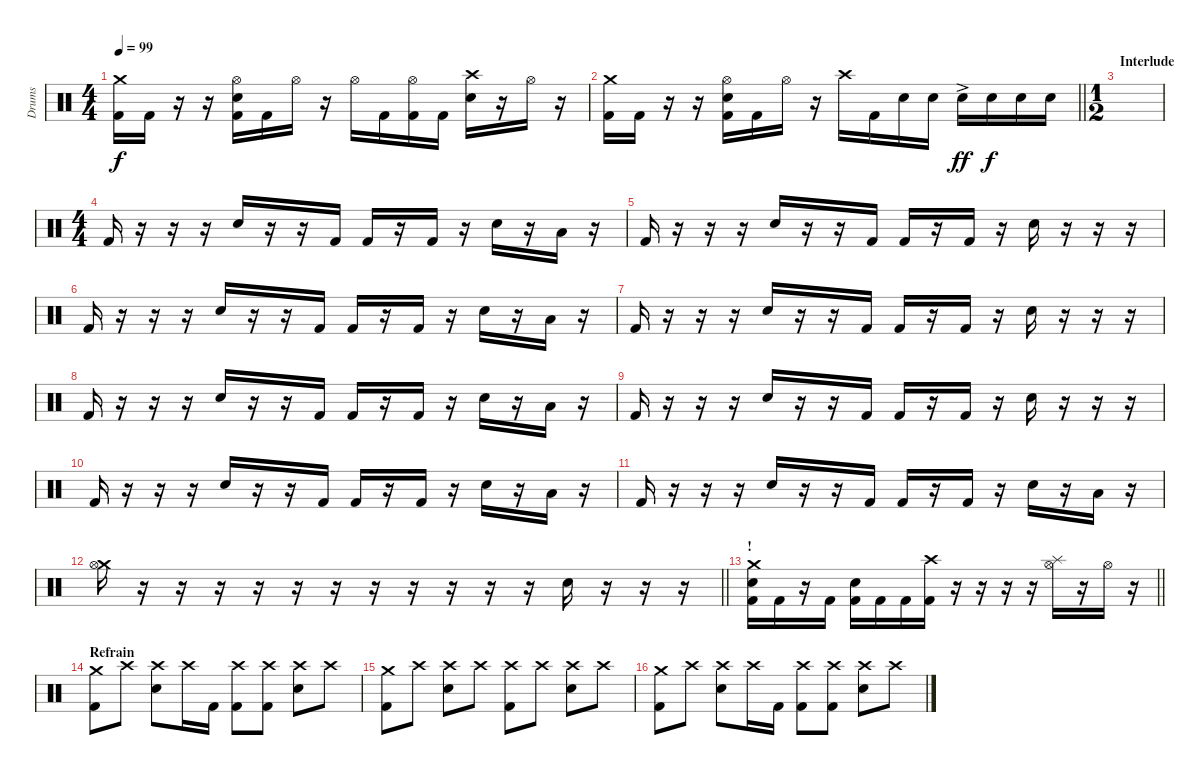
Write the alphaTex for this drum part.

\track ("Drums" "Drums") {instrument percussion}
\staff {score}
\articulation defaults
\ts (4 4)
\tempo 99
\clef neutral
\ks c
("Crash medium (hit)" "Kick (hit) 2").16{dy f} "Kick (hit) 2".16 r.16 r.16 ("Hi-Hat (open)" "Electric Snare (hit)" "Kick (hit) 2").16 "Kick (hit) 2".16 "Hi-Hat (open)".16 r.16 "Hi-Hat (open)".16 "Kick (hit) 2".16 ("Hi-Hat (open)" "Kick (hit) 2").16 "Kick (hit) 2".16 ("Crash high (hit)" "Electric Snare (hit)").16 r.16 "Hi-Hat (open)".16 r.16 |
\barLineRight lightlight
("Crash medium (hit)" "Kick (hit) 2").16 "Kick (hit) 2".16 r.16 r.16 ("Hi-Hat (open)" "Electric Snare (hit)" "Kick (hit) 2").16 "Kick (hit) 2".16 "Hi-Hat (open)".16 r.16 "Crash high (hit)".16 "Kick (hit) 2".16 "Electric Snare (hit)".16 "Electric Snare (hit)".16 "Electric Snare (hit)"{ac}.16{dy ff} "Electric Snare (hit)".16{dy f} "Electric Snare (hit)".16 "Electric Snare (hit)".16 |
\ts (1 2)
\section ("" "Interlude")
|
\ts (4 4)
"Kick (hit) 2".16 r.16 r.16 r.16 "Electric Snare (hit)".16 r.16 r.16 "Kick (hit) 2".16 "Kick (hit) 2".16 r.16 "Kick (hit) 2".16 r.16 "Electric Snare (hit)".16 r.16 "Low Floor Tom (hit)".16 r.16 |
"Kick (hit) 2".16 r.16 r.16 r.16 "Electric Snare (hit)".16 r.16 r.16 "Kick (hit) 2".16 "Kick (hit) 2".16 r.16 "Kick (hit) 2".16 r.16 "Electric Snare (hit)".16 r.16 r.16 r.16 |
"Kick (hit) 2".16 r.16 r.16 r.16 "Electric Snare (hit)".16 r.16 r.16 "Kick (hit) 2".16 "Kick (hit) 2".16 r.16 "Kick (hit) 2".16 r.16 "Electric Snare (hit)".16 r.16 "Low Floor Tom (hit)".16 r.16 |
"Kick (hit) 2".16 r.16 r.16 r.16 "Electric Snare (hit)".16 r.16 r.16 "Kick (hit) 2".16 "Kick (hit) 2".16 r.16 "Kick (hit) 2".16 r.16 "Electric Snare (hit)".16 r.16 r.16 r.16 |
"Kick (hit) 2".16 r.16 r.16 r.16 "Electric Snare (hit)".16 r.16 r.16 "Kick (hit) 2".16 "Kick (hit) 2".16 r.16 "Kick (hit) 2".16 r.16 "Electric Snare (hit)".16 r.16 "Low Floor Tom (hit)".16 r.16 |
"Kick (hit) 2".16 r.16 r.16 r.16 "Electric Snare (hit)".16 r.16 r.16 "Kick (hit) 2".16 "Kick (hit) 2".16 r.16 "Kick (hit) 2".16 r.16 "Electric Snare (hit)".16 r.16 r.16 r.16 |
"Kick (hit) 2".16 r.16 r.16 r.16 "Electric Snare (hit)".16 r.16 r.16 "Kick (hit) 2".16 "Kick (hit) 2".16 r.16 "Kick (hit) 2".16 r.16 "Electric Snare (hit)".16 r.16 "Low Floor Tom (hit)".16 r.16 |
"Kick (hit) 2".16 r.16 r.16 r.16 "Electric Snare (hit)".16 r.16 r.16 "Kick (hit) 2".16 "Kick (hit) 2".16 r.16 "Kick (hit) 2".16 r.16 "Electric Snare (hit)".16 r.16 "Low Floor Tom (hit)".16 r.16 |
\barLineRight lightlight
("Crash medium (hit)" "Hi-Hat (open)").16 r.16 r.16 r.16 r.16 r.16 r.16 r.16 r.16 r.16 r.16 r.16 "Electric Snare (hit)".16 r.16 r.16 r.16 |
\section ("" "!")
\barLineRight lightlight
("Crash medium (hit)" "Electric Snare (hit)" "Kick (hit) 2").16 "Kick (hit) 2".16 r.16 "Kick (hit) 2".16 ("Electric Snare (hit)" "Kick (hit) 2").16 "Kick (hit) 2".16 "Kick (hit) 2".16 ("Crash high (hit)" "Kick (hit) 2").16 r.16 r.16 r.16 r.16 ("Splash (hit)" "Hi-Hat (open)").16 r.16 "Hi-Hat (open)".16 r.16 |
\section ("" "Refrain")
("Crash medium (hit)" "Kick (hit) 2").8 "Crash high (hit)".8 ("Crash high (hit)" "Electric Snare (hit)").8 "Crash high (hit)".16 "Kick (hit) 2".16 ("Crash high (hit)" "Kick (hit) 2").8 ("Crash high (hit)" "Kick (hit) 2").8 ("Crash high (hit)" "Electric Snare (hit)").8 "Crash high (hit)".8 |
("Crash medium (hit)" "Kick (hit) 2").8 "Crash high (hit)".8 ("Crash high (hit)" "Electric Snare (hit)").8 "Crash high (hit)".8 ("Crash high (hit)" "Kick (hit) 2").8 "Crash high (hit)".8 ("Crash high (hit)" "Electric Snare (hit)").8 "Crash high (hit)".8 |
("Crash medium (hit)" "Kick (hit) 2").8 "Crash high (hit)".8 ("Crash high (hit)" "Electric Snare (hit)").8 "Crash high (hit)".16 "Kick (hit) 2".16 ("Crash high (hit)" "Kick (hit) 2").8 ("Crash high (hit)" "Kick (hit) 2").8 ("Crash high (hit)" "Electric Snare (hit)").8 "Crash high (hit)".8
